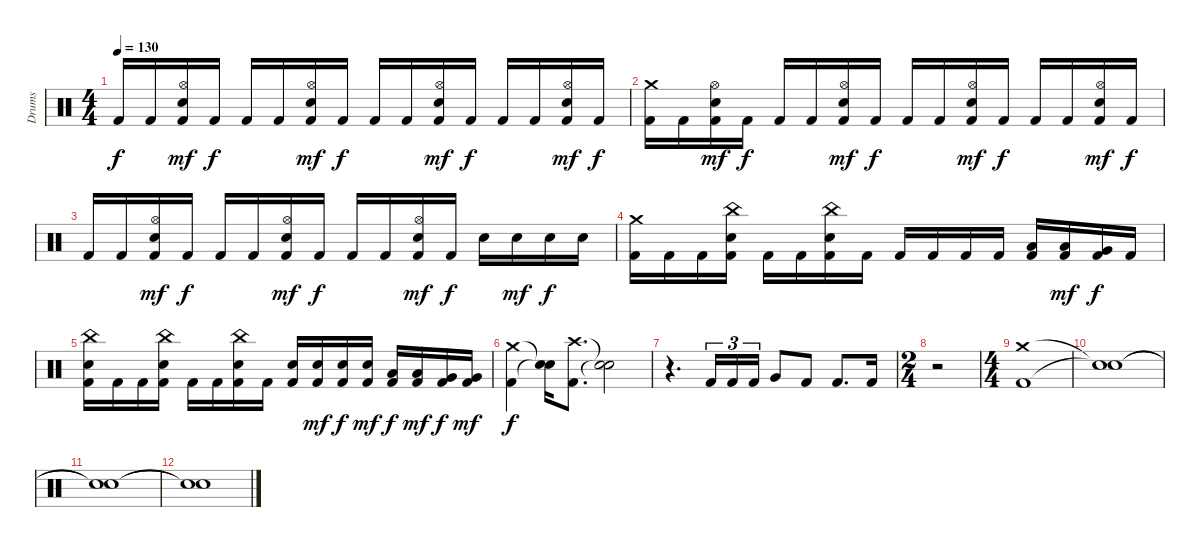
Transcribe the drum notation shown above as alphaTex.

\track ("Drums" "Drums") {instrument percussion}
\staff {score}
\articulation defaults
\ts (4 4)
\tempo 130
\clef neutral
\ks c "Kick (hit) 2".16{dy f} "Kick (hit) 2".16
("Kick (hit) 2" "Hi-Hat (open)" "Electric Snare (hit)").16{dy mf} "Kick (hit) 2".16{dy f} "Kick (hit) 2".16 "Kick (hit) 2".16 ("Kick (hit) 2" "Hi-Hat (open)" "Electric Snare (hit)").16{dy mf} "Kick (hit) 2".16{dy f} "Kick (hit) 2".16 "Kick (hit) 2".16 ("Kick (hit) 2" "Hi-Hat (open)" "Electric Snare (hit)").16{dy mf} "Kick (hit) 2".16{dy f} "Kick (hit) 2".16 "Kick (hit) 2".16 ("Kick (hit) 2" "Hi-Hat (open)" "Electric Snare (hit)").16{dy mf} "Kick (hit) 2".16{dy f} |
("Kick (hit) 2" "Crash medium (hit)").16 "Kick (hit) 2".16 ("Kick (hit) 2" "Hi-Hat (open)" "Electric Snare (hit)").16{dy mf} "Kick (hit) 2".16{dy f} "Kick (hit) 2".16 "Kick (hit) 2".16 ("Kick (hit) 2" "Hi-Hat (open)" "Electric Snare (hit)").16{dy mf} "Kick (hit) 2".16{dy f} "Kick (hit) 2".16 "Kick (hit) 2".16 ("Kick (hit) 2" "Hi-Hat (open)" "Electric Snare (hit)").16{dy mf} "Kick (hit) 2".16{dy f} "Kick (hit) 2".16 "Kick (hit) 2".16 ("Kick (hit) 2" "Hi-Hat (open)" "Electric Snare (hit)").16{dy mf} "Kick (hit) 2".16{dy f} |
"Kick (hit) 2".16 "Kick (hit) 2".16 ("Kick (hit) 2" "Hi-Hat (open)" "Electric Snare (hit)").16{dy mf} "Kick (hit) 2".16{dy f} "Kick (hit) 2".16 "Kick (hit) 2".16 ("Kick (hit) 2" "Hi-Hat (open)" "Electric Snare (hit)").16{dy mf} "Kick (hit) 2".16{dy f} "Kick (hit) 2".16 "Kick (hit) 2".16 ("Kick (hit) 2" "Hi-Hat (open)" "Electric Snare (hit)").16{dy mf} "Kick (hit) 2".16{dy f} "Electric Snare (hit)".16 "Electric Snare (hit)".16{dy mf} "Electric Snare (hit)".16{dy f} "Electric Snare (hit)".16 |
("Kick (hit) 2" "Crash medium (hit)").16 "Kick (hit) 2".16 "Kick (hit) 2".16 ("Kick (hit) 2" "China (hit)" "Electric Snare (hit)").16 "Kick (hit) 2".16 "Kick (hit) 2".16 ("Kick (hit) 2" "China (hit)" "Electric Snare (hit)").16 "Kick (hit) 2".16 "Kick (hit) 2".16 "Kick (hit) 2".16 "Kick (hit) 2".16 "Kick (hit) 2".16 ("Kick (hit) 2" "Low Tom (hit)").16 ("Kick (hit) 2" "Low Tom (hit)").16{dy mf} ("Kick (hit) 2" "Very Low Tom (hit)").16{dy f} "Kick (hit) 2".16 |
("Kick (hit) 2" "China (hit)" "Electric Snare (hit)").16 "Kick (hit) 2".16 "Kick (hit) 2".16 ("Kick (hit) 2" "China (hit)" "Electric Snare (hit)").16 "Kick (hit) 2".16 "Kick (hit) 2".16 ("Kick (hit) 2" "China (hit)" "Electric Snare (hit)").16 "Kick (hit) 2".16 ("Kick (hit) 2" "Electric Snare (hit)").16 ("Kick (hit) 2" "Electric Snare (hit)").16{dy mf} ("Kick (hit) 2" "Electric Snare (hit)").16{dy f} ("Kick (hit) 2" "Electric Snare (hit)").16{dy mf} ("Kick (hit) 2" "Low Tom (hit)").16{dy f} ("Kick (hit) 2" "Low Tom (hit)").16{dy mf} ("Kick (hit) 2" "Very Low Tom (hit)").16{dy f} ("Kick (hit) 2" "Very Low Tom (hit)").16{dy mf} |
("Kick (hit) 2" "Crash medium (hit)").4{dy f} ("Snare (hit)"{t} "Snare (hit)"{t}).16 ("Kick (hit) 2" "Crash high (hit)").8{d} ("Snare (hit)"{t} "Snare (hit)"{t}).2 |
r.4{d} "Kick (hit) 2".16{tu (3 2)} "Kick (hit) 2".16{tu (3 2)} "Kick (hit) 2".16{tu (3 2)} "Very Low Tom (hit)".8 "Kick (hit) 2".8 "Kick (hit) 2".8{d} "Kick (hit) 2".16 |
\ts (2 4)
r.2 |
\ts (4 4)
("Kick (hit) 2" "Crash medium (hit)").1 |
("Snare (hit)"{t} "Snare (hit)"{t}).1 |
("Snare (hit)"{t} "Snare (hit)"{t}).1 |
("Snare (hit)"{t} "Snare (hit)"{t}).1
